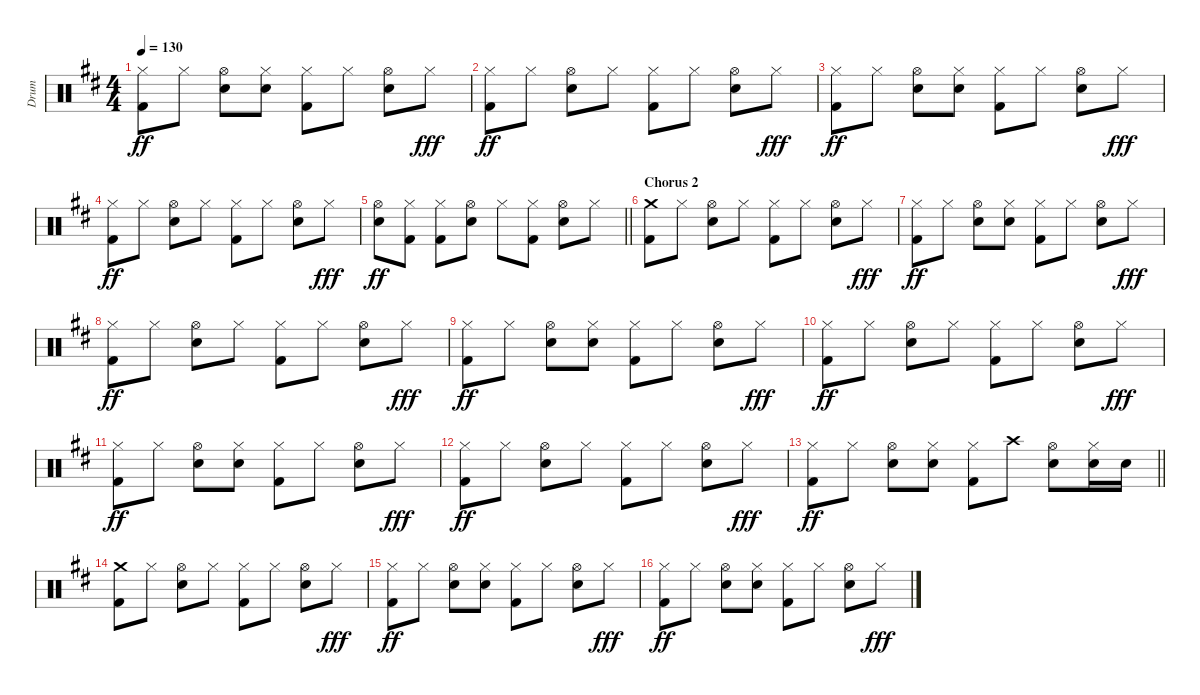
\track ("Drum" "Drum") {instrument percussion}
\staff {score}
\articulation defaults
\ts (4 4)
\tempo 130
\clef neutral
\ks d
("Hi-Hat (closed)" "Kick (hit) 2").8{dy ff} "Hi-Hat (closed)".8 ("Hi-Hat (open)" "Electric Snare (hit)").8 ("Hi-Hat (closed)" "Electric Snare (hit)").8 ("Hi-Hat (closed)" "Kick (hit) 2").8 "Hi-Hat (closed)".8 ("Hi-Hat (open)" "Electric Snare (hit)").8 "Hi-Hat (closed)".8{dy fff} |
("Hi-Hat (closed)" "Kick (hit) 2").8{dy ff} "Hi-Hat (closed)".8 ("Hi-Hat (open)" "Electric Snare (hit)").8 "Hi-Hat (closed)".8 ("Hi-Hat (closed)" "Kick (hit) 2").8 "Hi-Hat (closed)".8 ("Hi-Hat (open)" "Electric Snare (hit)").8 "Hi-Hat (closed)".8{dy fff} |
("Hi-Hat (closed)" "Kick (hit) 2").8{dy ff} "Hi-Hat (closed)".8 ("Hi-Hat (open)" "Electric Snare (hit)").8 ("Hi-Hat (closed)" "Electric Snare (hit)").8 ("Hi-Hat (closed)" "Kick (hit) 2").8 "Hi-Hat (closed)".8 ("Hi-Hat (open)" "Electric Snare (hit)").8 "Hi-Hat (closed)".8{dy fff} |
("Hi-Hat (closed)" "Kick (hit) 2").8{dy ff} "Hi-Hat (closed)".8 ("Hi-Hat (open)" "Electric Snare (hit)").8 "Hi-Hat (closed)".8 ("Hi-Hat (closed)" "Kick (hit) 2").8 "Hi-Hat (closed)".8 ("Hi-Hat (open)" "Electric Snare (hit)").8 "Hi-Hat (closed)".8{dy fff} |
\barLineRight lightlight
("Hi-Hat (open)" "Electric Snare (hit)").8{dy ff} ("Hi-Hat (closed)" "Kick (hit) 2").8 ("Hi-Hat (closed)" "Kick (hit) 2").8 ("Hi-Hat (open)" "Electric Snare (hit)").8 "Hi-Hat (closed)".8 ("Hi-Hat (closed)" "Kick (hit) 2").8 ("Hi-Hat (open)" "Electric Snare (hit)").8 "Hi-Hat (closed)".8 |
\section ("" "Chorus 2")
("Crash medium (hit)" "Kick (hit) 2").8 "Hi-Hat (closed)".8 ("Hi-Hat (open)" "Electric Snare (hit)").8 "Hi-Hat (closed)".8 ("Hi-Hat (closed)" "Kick (hit) 2").8 "Hi-Hat (closed)".8 ("Hi-Hat (open)" "Electric Snare (hit)").8 "Hi-Hat (closed)".8{dy fff} |
("Hi-Hat (closed)" "Kick (hit) 2").8{dy ff} "Hi-Hat (closed)".8 ("Hi-Hat (open)" "Electric Snare (hit)").8 ("Hi-Hat (closed)" "Electric Snare (hit)").8 ("Hi-Hat (closed)" "Kick (hit) 2").8 "Hi-Hat (closed)".8 ("Hi-Hat (open)" "Electric Snare (hit)").8 "Hi-Hat (closed)".8{dy fff} |
("Hi-Hat (closed)" "Kick (hit) 2").8{dy ff} "Hi-Hat (closed)".8 ("Hi-Hat (open)" "Electric Snare (hit)").8 "Hi-Hat (closed)".8 ("Hi-Hat (closed)" "Kick (hit) 2").8 "Hi-Hat (closed)".8 ("Hi-Hat (open)" "Electric Snare (hit)").8 "Hi-Hat (closed)".8{dy fff} |
("Hi-Hat (closed)" "Kick (hit) 2").8{dy ff} "Hi-Hat (closed)".8 ("Hi-Hat (open)" "Electric Snare (hit)").8 ("Hi-Hat (closed)" "Electric Snare (hit)").8 ("Hi-Hat (closed)" "Kick (hit) 2").8 "Hi-Hat (closed)".8 ("Hi-Hat (open)" "Electric Snare (hit)").8 "Hi-Hat (closed)".8{dy fff} |
("Hi-Hat (closed)" "Kick (hit) 2").8{dy ff} "Hi-Hat (closed)".8 ("Hi-Hat (open)" "Electric Snare (hit)").8 "Hi-Hat (closed)".8 ("Hi-Hat (closed)" "Kick (hit) 2").8 "Hi-Hat (closed)".8 ("Hi-Hat (open)" "Electric Snare (hit)").8 "Hi-Hat (closed)".8{dy fff} |
("Hi-Hat (closed)" "Kick (hit) 2").8{dy ff} "Hi-Hat (closed)".8 ("Hi-Hat (open)" "Electric Snare (hit)").8 ("Hi-Hat (closed)" "Electric Snare (hit)").8 ("Hi-Hat (closed)" "Kick (hit) 2").8 "Hi-Hat (closed)".8 ("Hi-Hat (open)" "Electric Snare (hit)").8 "Hi-Hat (closed)".8{dy fff} |
("Hi-Hat (closed)" "Kick (hit) 2").8{dy ff} "Hi-Hat (closed)".8 ("Hi-Hat (open)" "Electric Snare (hit)").8 "Hi-Hat (closed)".8 ("Hi-Hat (closed)" "Kick (hit) 2").8 "Hi-Hat (closed)".8 ("Hi-Hat (open)" "Electric Snare (hit)").8 "Hi-Hat (closed)".8{dy fff} |
\barLineRight lightlight
("Hi-Hat (closed)" "Kick (hit) 2").8{dy ff} "Hi-Hat (closed)".8 ("Hi-Hat (open)" "Electric Snare (hit)").8 ("Hi-Hat (closed)" "Electric Snare (hit)").8 ("Hi-Hat (closed)" "Kick (hit) 2").8 "Crash high (hit)".8 ("Hi-Hat (open)" "Electric Snare (hit)").8 ("Hi-Hat (closed)" "Electric Snare (hit)").16 "Electric Snare (hit)".16 |
("Crash medium (hit)" "Kick (hit) 2").8 "Hi-Hat (closed)".8 ("Hi-Hat (open)" "Electric Snare (hit)").8 "Hi-Hat (closed)".8 ("Hi-Hat (closed)" "Kick (hit) 2").8 "Hi-Hat (closed)".8 ("Hi-Hat (open)" "Electric Snare (hit)").8 "Hi-Hat (closed)".8{dy fff} |
("Hi-Hat (closed)" "Kick (hit) 2").8{dy ff} "Hi-Hat (closed)".8 ("Hi-Hat (open)" "Electric Snare (hit)").8 ("Hi-Hat (closed)" "Electric Snare (hit)").8 ("Hi-Hat (closed)" "Kick (hit) 2").8 "Hi-Hat (closed)".8 ("Hi-Hat (open)" "Electric Snare (hit)").8 "Hi-Hat (closed)".8{dy fff} |
("Hi-Hat (closed)" "Kick (hit) 2").8{dy ff} "Hi-Hat (closed)".8 ("Hi-Hat (open)" "Electric Snare (hit)").8 ("Hi-Hat (closed)" "Electric Snare (hit)").8 ("Hi-Hat (closed)" "Kick (hit) 2").8 "Hi-Hat (closed)".8 ("Hi-Hat (open)" "Electric Snare (hit)").8 "Hi-Hat (closed)".8{dy fff}
